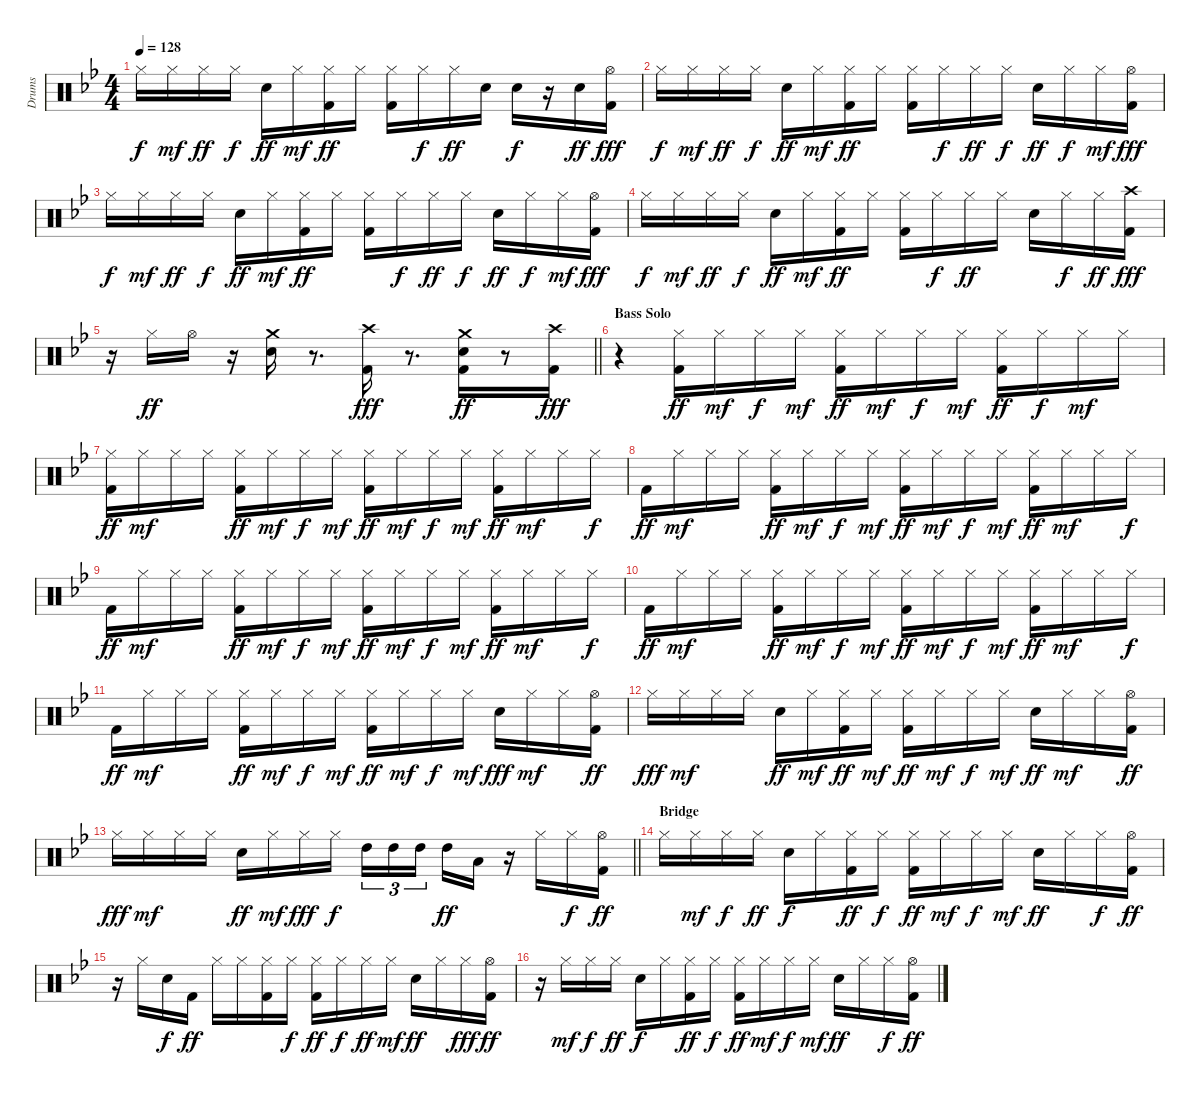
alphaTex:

\track ("Drums" "Drums") {instrument percussion}
\staff {score}
\articulation defaults
\ts (4 4)
\tempo 128
\clef neutral
\ks gminor "Hi-Hat (closed)".16{dy f} "Hi-Hat (closed)".16{dy mf} "Hi-Hat (closed)".16{dy ff} "Hi-Hat (closed)".16{dy f} "Snare (hit) 2".16{dy ff} "Hi-Hat (closed)".16{dy mf}
("Hi-Hat (closed)" "Kick (hit) 2").16{dy ff} "Hi-Hat (closed)".16 ("Hi-Hat (closed)" "Kick (hit) 2").16 "Hi-Hat (closed)".16{dy f} "Hi-Hat (closed)".16{dy ff} "Snare (hit) 2".16 "Snare (hit) 2".16{dy f} r.16 "Snare (hit) 2".16{dy ff} ("Hi-Hat (open)" "Kick (hit) 2").16{dy fff} |
"Hi-Hat (closed)".16{dy f} "Hi-Hat (closed)".16{dy mf} "Hi-Hat (closed)".16{dy ff} "Hi-Hat (closed)".16{dy f} "Snare (hit) 2".16{dy ff} "Hi-Hat (closed)".16{dy mf} ("Hi-Hat (closed)" "Kick (hit) 2").16{dy ff} "Hi-Hat (closed)".16 ("Hi-Hat (closed)" "Kick (hit) 2").16 "Hi-Hat (closed)".16{dy f} "Hi-Hat (closed)".16{dy ff} "Hi-Hat (closed)".16{dy f} "Snare (hit) 2".16{dy ff} "Hi-Hat (closed)".16{dy f} "Hi-Hat (closed)".16{dy mf} ("Hi-Hat (open)" "Kick (hit) 2").16{dy fff} |
"Hi-Hat (closed)".16{dy f} "Hi-Hat (closed)".16{dy mf} "Hi-Hat (closed)".16{dy ff} "Hi-Hat (closed)".16{dy f} "Snare (hit) 2".16{dy ff} "Hi-Hat (closed)".16{dy mf} ("Hi-Hat (closed)" "Kick (hit) 2").16{dy ff} "Hi-Hat (closed)".16 ("Hi-Hat (closed)" "Kick (hit) 2").16 "Hi-Hat (closed)".16{dy f} "Hi-Hat (closed)".16{dy ff} "Hi-Hat (closed)".16{dy f} "Snare (hit) 2".16{dy ff} "Hi-Hat (closed)".16{dy f} "Hi-Hat (closed)".16{dy mf} ("Hi-Hat (open)" "Kick (hit) 2").16{dy fff} |
"Hi-Hat (closed)".16{dy f} "Hi-Hat (closed)".16{dy mf} "Hi-Hat (closed)".16{dy ff} "Hi-Hat (closed)".16{dy f} "Snare (hit) 2".16{dy ff} "Hi-Hat (closed)".16{dy mf} ("Hi-Hat (closed)" "Kick (hit) 2").16{dy ff} "Hi-Hat (closed)".16 ("Hi-Hat (closed)" "Kick (hit) 2").16 "Hi-Hat (closed)".16{dy f} "Hi-Hat (closed)".16{dy ff} "Hi-Hat (closed)".16 "Snare (hit) 2".16 "Hi-Hat (closed)".16{dy f} "Hi-Hat (closed)".16{dy ff} ("Kick (hit) 2" "Crash high (hit)").16{dy fff} |
\barLineRight lightlight
r.16 "Hi-Hat (closed)".16{dy ff} "Hi-Hat (open)".16 r.16 ("Snare (hit) 2" "Crash medium (hit)").16 r.8{d} ("Kick (hit) 2" "Crash high (hit)").16{dy fff} r.8{d} ("Kick (hit) 2" "Snare (hit) 2" "Crash medium (hit)").16{dy ff} r.8 ("Kick (hit) 2" "Crash high (hit)").16{dy fff} |
\section ("" "Bass Solo")
r.4 ("Hi-Hat (closed)" "Kick (hit) 2").16{dy ff} "Hi-Hat (closed)".16{dy mf} "Hi-Hat (closed)".16{dy f} "Hi-Hat (closed)".16{dy mf} ("Hi-Hat (closed)" "Kick (hit) 2").16{dy ff} "Hi-Hat (closed)".16{dy mf} "Hi-Hat (closed)".16{dy f} "Hi-Hat (closed)".16{dy mf} ("Hi-Hat (closed)" "Kick (hit) 2").16{dy ff} "Hi-Hat (closed)".16{dy f} "Hi-Hat (closed)".16{dy mf} "Hi-Hat (closed)".16 |
("Hi-Hat (closed)" "Kick (hit) 2").16{dy ff} "Hi-Hat (closed)".16{dy mf} "Hi-Hat (closed)".16 "Hi-Hat (closed)".16 ("Hi-Hat (closed)" "Kick (hit) 2").16{dy ff} "Hi-Hat (closed)".16{dy mf} "Hi-Hat (closed)".16{dy f} "Hi-Hat (closed)".16{dy mf} ("Hi-Hat (closed)" "Kick (hit) 2").16{dy ff} "Hi-Hat (closed)".16{dy mf} "Hi-Hat (closed)".16{dy f} "Hi-Hat (closed)".16{dy mf} ("Hi-Hat (closed)" "Kick (hit) 2").16{dy ff} "Hi-Hat (closed)".16{dy mf} "Hi-Hat (closed)".16 "Hi-Hat (closed)".16{dy f} |
"Kick (hit) 2".16{dy ff} "Hi-Hat (closed)".16{dy mf} "Hi-Hat (closed)".16 "Hi-Hat (closed)".16 ("Hi-Hat (closed)" "Kick (hit) 2").16{dy ff} "Hi-Hat (closed)".16{dy mf} "Hi-Hat (closed)".16{dy f} "Hi-Hat (closed)".16{dy mf} ("Hi-Hat (closed)" "Kick (hit) 2").16{dy ff} "Hi-Hat (closed)".16{dy mf} "Hi-Hat (closed)".16{dy f} "Hi-Hat (closed)".16{dy mf} ("Hi-Hat (closed)" "Kick (hit) 2").16{dy ff} "Hi-Hat (closed)".16{dy mf} "Hi-Hat (closed)".16 "Hi-Hat (closed)".16{dy f} |
"Kick (hit) 2".16{dy ff} "Hi-Hat (closed)".16{dy mf} "Hi-Hat (closed)".16 "Hi-Hat (closed)".16 ("Hi-Hat (closed)" "Kick (hit) 2").16{dy ff} "Hi-Hat (closed)".16{dy mf} "Hi-Hat (closed)".16{dy f} "Hi-Hat (closed)".16{dy mf} ("Hi-Hat (closed)" "Kick (hit) 2").16{dy ff} "Hi-Hat (closed)".16{dy mf} "Hi-Hat (closed)".16{dy f} "Hi-Hat (closed)".16{dy mf} ("Hi-Hat (closed)" "Kick (hit) 2").16{dy ff} "Hi-Hat (closed)".16{dy mf} "Hi-Hat (closed)".16 "Hi-Hat (closed)".16{dy f} |
"Kick (hit) 2".16{dy ff} "Hi-Hat (closed)".16{dy mf} "Hi-Hat (closed)".16 "Hi-Hat (closed)".16 ("Hi-Hat (closed)" "Kick (hit) 2").16{dy ff} "Hi-Hat (closed)".16{dy mf} "Hi-Hat (closed)".16{dy f} "Hi-Hat (closed)".16{dy mf} ("Hi-Hat (closed)" "Kick (hit) 2").16{dy ff} "Hi-Hat (closed)".16{dy mf} "Hi-Hat (closed)".16{dy f} "Hi-Hat (closed)".16{dy mf} ("Hi-Hat (closed)" "Kick (hit) 2").16{dy ff} "Hi-Hat (closed)".16{dy mf} "Hi-Hat (closed)".16 "Hi-Hat (closed)".16{dy f} |
"Kick (hit) 2".16{dy ff} "Hi-Hat (closed)".16{dy mf} "Hi-Hat (closed)".16 "Hi-Hat (closed)".16 ("Hi-Hat (closed)" "Kick (hit) 2").16{dy ff} "Hi-Hat (closed)".16{dy mf} "Hi-Hat (closed)".16{dy f} "Hi-Hat (closed)".16{dy mf} ("Hi-Hat (closed)" "Kick (hit) 2").16{dy ff} "Hi-Hat (closed)".16{dy mf} "Hi-Hat (closed)".16{dy f} "Hi-Hat (closed)".16{dy mf} "Snare (hit) 2".16{dy fff} "Hi-Hat (closed)".16{dy mf} "Hi-Hat (closed)".16 ("Kick (hit) 2" "Hi-Hat (open)").16{dy ff} |
"Hi-Hat (closed)".16{dy fff} "Hi-Hat (closed)".16{dy mf} "Hi-Hat (closed)".16 "Hi-Hat (closed)".16 "Snare (hit) 2".16{dy ff} "Hi-Hat (closed)".16{dy mf} ("Hi-Hat (closed)" "Kick (hit) 2").16{dy ff} "Hi-Hat (closed)".16{dy mf} ("Hi-Hat (closed)" "Kick (hit) 2").16{dy ff} "Hi-Hat (closed)".16{dy mf} "Hi-Hat (closed)".16{dy f} "Hi-Hat (closed)".16{dy mf} "Snare (hit) 2".16{dy ff} "Hi-Hat (closed)".16{dy mf} "Hi-Hat (closed)".16 ("Kick (hit) 2" "Hi-Hat (open)").16{dy ff} |
\barLineRight lightlight "Hi-Hat (closed)".16{dy fff} "Hi-Hat (closed)".16{dy mf} "Hi-Hat (closed)".16 "Hi-Hat (closed)".16 "Snare (hit) 2".16{dy ff} "Hi-Hat (closed)".16{dy mf} "Hi-Hat (closed)".16{dy fff} "Hi-Hat (closed)".16{dy f} "High Tom (hit)".16{tu (3 2)} "High Tom (hit)".16{tu (3 2)} "High Tom (hit)".16{tu (3 2) beam splitsecondary} "High Tom (hit)".16{dy ff} "Low Tom (hit)".16
r.16 "Hi-Hat (closed)".16 "Hi-Hat (closed)".16{dy f} ("Hi-Hat (open)" "Kick (hit) 2").16{dy ff} |
\section ("" "Bridge")
"Hi-Hat (closed)".16 "Hi-Hat (closed)".16{dy mf} "Hi-Hat (closed)".16{dy f} "Hi-Hat (closed)".16{dy ff} "Snare (hit) 2".16{dy f} "Hi-Hat (closed)".16 ("Hi-Hat (closed)" "Kick (hit) 2").16{dy ff} "Hi-Hat (closed)".16{dy f} ("Hi-Hat (closed)" "Kick (hit) 2").16{dy ff} "Hi-Hat (closed)".16{dy mf} "Hi-Hat (closed)".16{dy f} "Hi-Hat (closed)".16{dy mf} "Snare (hit) 2".16{dy ff} "Hi-Hat (closed)".16 "Hi-Hat (closed)".16{dy f} ("Hi-Hat (open)" "Kick (hit) 2").16{dy ff} |
r.16 "Hi-Hat (closed)".16 "Snare (hit) 2".16{dy f} "Kick (hit) 2".16{dy ff} "Hi-Hat (closed)".16 "Hi-Hat (closed)".16 ("Hi-Hat (closed)" "Kick (hit) 2").16 "Hi-Hat (closed)".16{dy f} ("Hi-Hat (closed)" "Kick (hit) 2").16{dy ff} "Hi-Hat (closed)".16{dy f} "Hi-Hat (closed)".16{dy ff} "Hi-Hat (closed)".16{dy mf} "Snare (hit) 2".16{dy ff} "Hi-Hat (closed)".16 "Hi-Hat (closed)".16{dy fff} ("Hi-Hat (open)" "Kick (hit) 2").16{dy ff} |
r.16 "Hi-Hat (closed)".16{dy mf} "Hi-Hat (closed)".16{dy f} "Hi-Hat (closed)".16{dy ff} "Snare (hit) 2".16{dy f} "Hi-Hat (closed)".16 ("Hi-Hat (closed)" "Kick (hit) 2").16{dy ff} "Hi-Hat (closed)".16{dy f} ("Hi-Hat (closed)" "Kick (hit) 2").16{dy ff} "Hi-Hat (closed)".16{dy mf} "Hi-Hat (closed)".16{dy f} "Hi-Hat (closed)".16{dy mf} "Snare (hit) 2".16{dy ff} "Hi-Hat (closed)".16 "Hi-Hat (closed)".16{dy f} ("Hi-Hat (open)" "Kick (hit) 2").16{dy ff}
